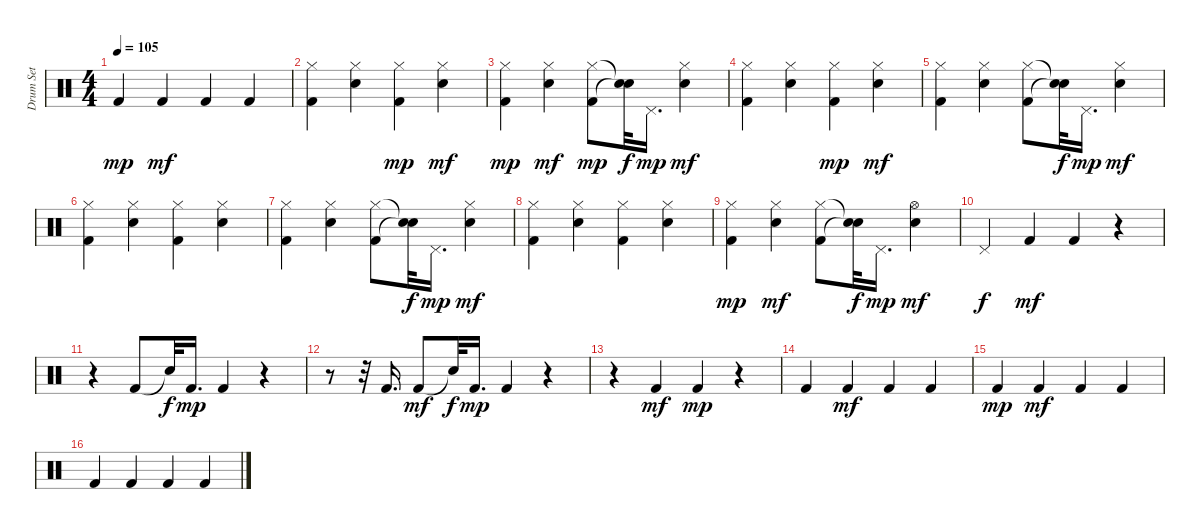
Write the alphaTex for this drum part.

\track ("Drum Set" "Drum Set") {instrument percussion}
\staff {score}
\articulation defaults
\ts (4 4)
\tempo 105
\clef neutral
\ks c "Kick (hit) 2".4{dy mp} "Kick (hit) 2".4{dy mf} "Kick (hit) 2".4 "Kick (hit) 2".4
|
("Kick (hit) 2" "Hi-Hat (closed)").4 ("Snare (hit) 2" "Hi-Hat (closed)").4 ("Kick (hit) 2" "Hi-Hat (closed)").4{dy mp} ("Snare (hit) 2" "Hi-Hat (closed)").4{dy mf} |
("Kick (hit) 2" "Hi-Hat (closed)").4{dy mp} ("Snare (hit) 2" "Hi-Hat (closed)").4{dy mf} ("Kick (hit) 2" "Hi-Hat (closed)").8{dy mp} ("Snare (hit)"{t} "Snare (hit)"{t}).32{dy f} "Pedal Hi-Hat (hit)".16{d dy mp} ("Snare (hit) 2" "Hi-Hat (closed)").4{dy mf} |
("Kick (hit) 2" "Hi-Hat (closed)").4 ("Snare (hit) 2" "Hi-Hat (closed)").4 ("Kick (hit) 2" "Hi-Hat (closed)").4{dy mp} ("Snare (hit) 2" "Hi-Hat (closed)").4{dy mf} |
("Kick (hit) 2" "Hi-Hat (closed)").4 ("Snare (hit) 2" "Hi-Hat (closed)").4 ("Kick (hit) 2" "Hi-Hat (closed)").8 ("Snare (hit)"{t} "Snare (hit)"{t}).32{dy f} "Pedal Hi-Hat (hit)".16{d dy mp} ("Snare (hit) 2" "Hi-Hat (closed)").4{dy mf} |
("Kick (hit) 2" "Hi-Hat (closed)").4 ("Snare (hit) 2" "Hi-Hat (closed)").4 ("Kick (hit) 2" "Hi-Hat (closed)").4 ("Snare (hit) 2" "Hi-Hat (closed)").4 |
("Kick (hit) 2" "Hi-Hat (closed)").4 ("Snare (hit) 2" "Hi-Hat (closed)").4 ("Kick (hit) 2" "Hi-Hat (closed)").8 ("Snare (hit)"{t} "Snare (hit)"{t}).32{dy f} "Pedal Hi-Hat (hit)".16{d dy mp} ("Snare (hit) 2" "Hi-Hat (closed)").4{dy mf} |
("Kick (hit) 2" "Hi-Hat (closed)").4 ("Snare (hit) 2" "Hi-Hat (closed)").4 ("Kick (hit) 2" "Hi-Hat (closed)").4 ("Snare (hit) 2" "Hi-Hat (closed)").4 |
("Kick (hit) 2" "Hi-Hat (closed)").4{dy mp} ("Snare (hit) 2" "Hi-Hat (closed)").4{dy mf} ("Kick (hit) 2" "Hi-Hat (closed)").8 ("Snare (hit)"{t} "Snare (hit)"{t}).32{dy f} "Pedal Hi-Hat (hit)".16{d dy mp} ("Snare (hit) 2" "Hi-Hat (open)").4{dy mf} |
"Pedal Hi-Hat (hit)".4{dy f} "Kick (hit) 2".4{dy mf} "Kick (hit) 2".4 r.4 |
r.4 "Kick (hit) 2".8 "Snare (hit)"{t}.32{dy f} "Kick (hit) 2".16{d dy mp} "Kick (hit) 2".4 r.4 |
r.8 r.32 "Kick (hit) 2".16{d} "Kick (hit) 2".8{dy mf} "Snare (hit)"{t}.32{dy f} "Kick (hit) 2".16{d dy mp} "Kick (hit) 2".4 r.4 |
r.4 "Kick (hit) 2".4{dy mf} "Kick (hit) 2".4{dy mp} r.4 |
"Kick (hit) 2".4 "Kick (hit) 2".4{dy mf} "Kick (hit) 2".4 "Kick (hit) 2".4 |
"Kick (hit) 2".4{dy mp} "Kick (hit) 2".4{dy mf} "Kick (hit) 2".4 "Kick (hit) 2".4 |
"Kick (hit) 2".4 "Kick (hit) 2".4 "Kick (hit) 2".4 "Kick (hit) 2".4
